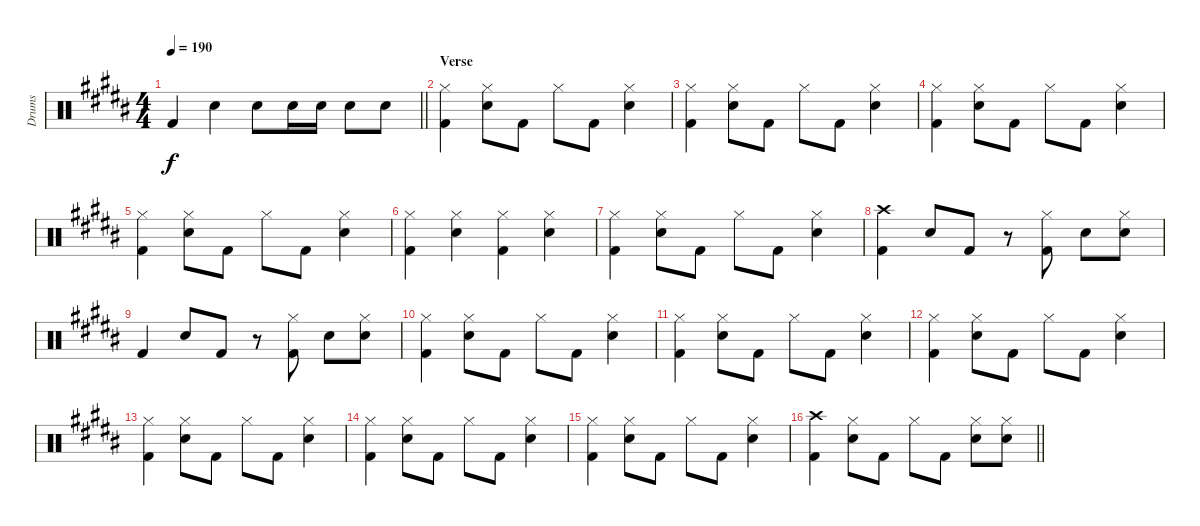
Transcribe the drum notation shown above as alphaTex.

\track ("Drums" "Drums") {instrument percussion}
\staff {score}
\articulation defaults
\ts (4 4)
\tempo 190
\clef neutral
\barLineRight lightlight
\ks b "Kick (hit) 2".4{dy f} "Electric Snare (hit)".4 "Electric Snare (hit)".8 "Electric Snare (hit)".16 "Electric Snare (hit)".16 "Electric Snare (hit)".8 "Electric Snare (hit)".8
|
\section ("" "Verse")
("Hi-Hat (closed)" "Kick (hit) 2").4 ("Hi-Hat (closed)" "Electric Snare (hit)").8 "Kick (hit) 2".8 "Hi-Hat (closed)".8 "Kick (hit) 2".8 ("Hi-Hat (closed)" "Electric Snare (hit)").4 |
("Hi-Hat (closed)" "Kick (hit) 2").4 ("Hi-Hat (closed)" "Electric Snare (hit)").8 "Kick (hit) 2".8 "Hi-Hat (closed)".8 "Kick (hit) 2".8 ("Hi-Hat (closed)" "Electric Snare (hit)").4 |
("Hi-Hat (closed)" "Kick (hit) 2").4 ("Hi-Hat (closed)" "Electric Snare (hit)").8 "Kick (hit) 2".8 "Hi-Hat (closed)".8 "Kick (hit) 2".8 ("Hi-Hat (closed)" "Electric Snare (hit)").4 |
("Hi-Hat (closed)" "Kick (hit) 2").4 ("Hi-Hat (closed)" "Electric Snare (hit)").8 "Kick (hit) 2".8 "Hi-Hat (closed)".8 "Kick (hit) 2".8 ("Hi-Hat (closed)" "Electric Snare (hit)").4 |
("Hi-Hat (closed)" "Kick (hit) 2").4 ("Hi-Hat (closed)" "Electric Snare (hit)").4 ("Hi-Hat (closed)" "Kick (hit) 2").4 ("Hi-Hat (closed)" "Electric Snare (hit)").4 |
("Hi-Hat (closed)" "Kick (hit) 2").4 ("Hi-Hat (closed)" "Electric Snare (hit)").8 "Kick (hit) 2".8 "Hi-Hat (closed)".8 "Kick (hit) 2".8 ("Hi-Hat (closed)" "Electric Snare (hit)").4 |
("Crash high (hit)" "Kick (hit) 2").4 "Electric Snare (hit)".8 "Kick (hit) 2".8 r.8 ("Hi-Hat (closed)" "Kick (hit) 2").8 "Electric Snare (hit)".8 ("Hi-Hat (closed)" "Electric Snare (hit)").8 |
"Kick (hit) 2".4 "Electric Snare (hit)".8 "Kick (hit) 2".8 r.8 ("Hi-Hat (closed)" "Kick (hit) 2").8 "Electric Snare (hit)".8 ("Hi-Hat (closed)" "Electric Snare (hit)").8 |
("Hi-Hat (closed)" "Kick (hit) 2").4 ("Hi-Hat (closed)" "Electric Snare (hit)").8 "Kick (hit) 2".8 "Hi-Hat (closed)".8 "Kick (hit) 2".8 ("Hi-Hat (closed)" "Electric Snare (hit)").4 |
("Hi-Hat (closed)" "Kick (hit) 2").4 ("Hi-Hat (closed)" "Electric Snare (hit)").8 "Kick (hit) 2".8 "Hi-Hat (closed)".8 "Kick (hit) 2".8 ("Hi-Hat (closed)" "Electric Snare (hit)").4 |
("Hi-Hat (closed)" "Kick (hit) 2").4 ("Hi-Hat (closed)" "Electric Snare (hit)").8 "Kick (hit) 2".8 "Hi-Hat (closed)".8 "Kick (hit) 2".8 ("Hi-Hat (closed)" "Electric Snare (hit)").4 |
("Hi-Hat (closed)" "Kick (hit) 2").4 ("Hi-Hat (closed)" "Electric Snare (hit)").8 "Kick (hit) 2".8 "Hi-Hat (closed)".8 "Kick (hit) 2".8 ("Hi-Hat (closed)" "Electric Snare (hit)").4 |
("Hi-Hat (closed)" "Kick (hit) 2").4 ("Hi-Hat (closed)" "Electric Snare (hit)").8 "Kick (hit) 2".8 "Hi-Hat (closed)".8 "Kick (hit) 2".8 ("Hi-Hat (closed)" "Electric Snare (hit)").4 |
("Hi-Hat (closed)" "Kick (hit) 2").4 ("Hi-Hat (closed)" "Electric Snare (hit)").8 "Kick (hit) 2".8 "Hi-Hat (closed)".8 "Kick (hit) 2".8 ("Hi-Hat (closed)" "Electric Snare (hit)").4 |
\barLineRight lightlight
("Crash high (hit)" "Kick (hit) 2").4 ("Hi-Hat (closed)" "Electric Snare (hit)").8 "Kick (hit) 2".8 "Hi-Hat (closed)".8 "Kick (hit) 2".8 ("Hi-Hat (closed)" "Electric Snare (hit)").8 ("Hi-Hat (closed)" "Electric Snare (hit)").8
